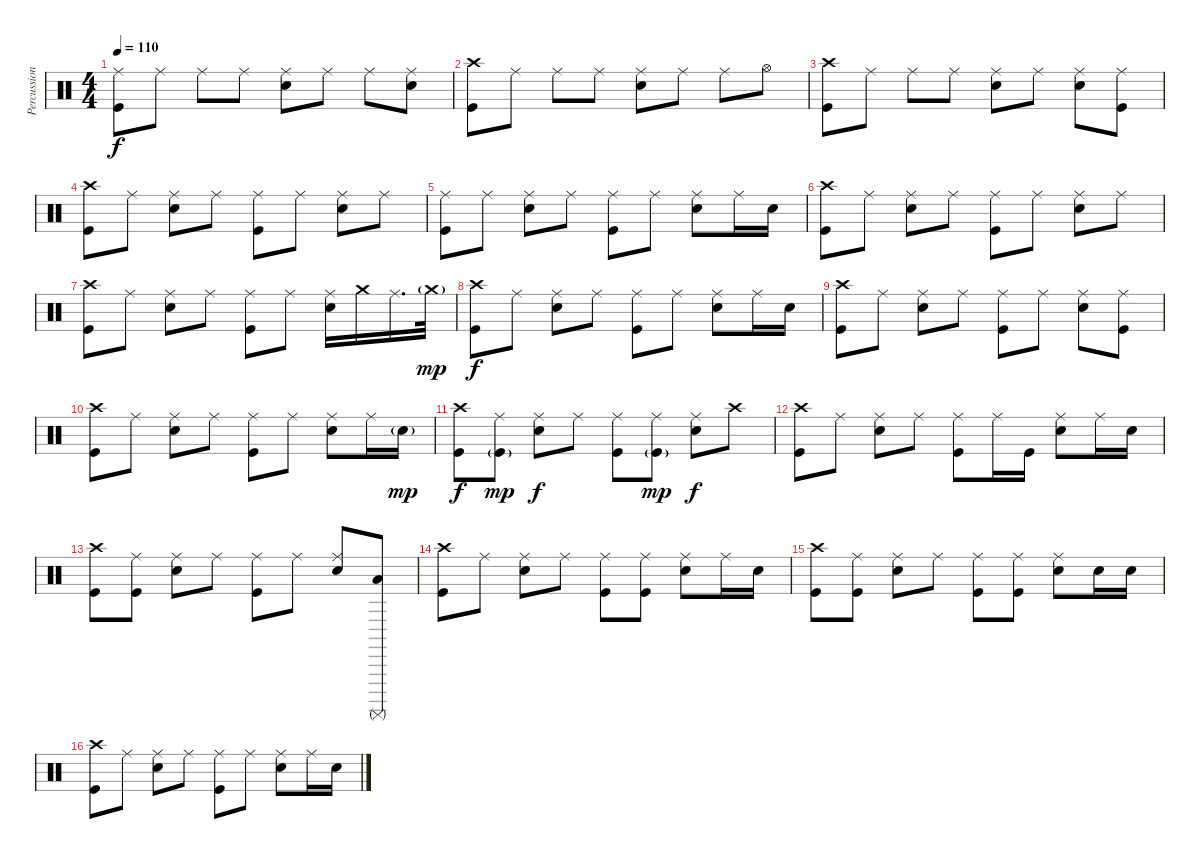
\track ("Percussions" "Percussion") {instrument percussion}
\staff {score}
\articulation defaults
\ts (4 4)
\tempo 110
\clef neutral
\ks c
("Ride (middle)" "Kick (hit)").8{dy f} "Ride (middle)".8 "Ride (middle)".8 "Ride (middle)".8 ("Ride (middle)" "Snare (hit) 2").8 "Ride (middle)".8 "Ride (middle)".8 ("Ride (middle)" "Snare (hit) 2").8 |
("Crash high (hit)" "Kick (hit)").8 "Ride (middle)".8 "Ride (middle)".8 "Ride (middle)".8 ("Ride (middle)" "Snare (hit) 2").8 "Ride (middle)".8 "Ride (middle)".8 "Hi-Hat (open)".8 |
("Crash high (hit)" "Kick (hit)").8 "Ride (middle)".8 "Ride (middle)".8 "Ride (middle)".8 ("Ride (middle)" "Snare (hit) 2").8 "Ride (middle)".8 ("Ride (middle)" "Snare (hit) 2").8 ("Ride (middle)" "Kick (hit)").8 |
("Crash high (hit)" "Kick (hit)").8 "Ride (middle)".8 ("Ride (middle)" "Snare (hit) 2").8 "Ride (middle)".8 ("Ride (middle)" "Kick (hit)").8 "Ride (middle)".8 ("Ride (middle)" "Snare (hit) 2").8 "Ride (middle)".8 |
("Ride (middle)" "Kick (hit)").8 "Ride (middle)".8 ("Ride (middle)" "Snare (hit) 2").8 "Ride (middle)".8 ("Ride (middle)" "Kick (hit)").8 "Ride (middle)".8 ("Ride (middle)" "Snare (hit) 2").8 "Ride (middle)".16 "Snare (hit) 2".16 |
("Crash high (hit)" "Kick (hit)").8 "Ride (middle)".8 ("Ride (middle)" "Snare (hit) 2").8 "Ride (middle)".8 ("Ride (middle)" "Kick (hit)").8 "Ride (middle)".8 ("Ride (middle)" "Snare (hit) 2").8 "Ride (middle)".8 |
("Crash high (hit)" "Kick (hit)").8 "Ride (middle)".8 ("Ride (middle)" "Snare (hit) 2").8 "Ride (middle)".8 ("Ride (middle)" "Kick (hit)").8 "Ride (middle)".8 ("Ride (middle)" "Snare (hit) 2").16 "Crash medium (hit)".16 "Ride (middle)".16{d} "Crash medium (hit)"{g}.32{dy mp} |
("Crash high (hit)" "Kick (hit)").8{dy f} "Ride (middle)".8 ("Ride (middle)" "Snare (hit) 2").8 "Ride (middle)".8 ("Ride (middle)" "Kick (hit)").8 "Ride (middle)".8 ("Ride (middle)" "Snare (hit) 2").8 "Ride (middle)".16 "Snare (hit) 2".16 |
("Crash high (hit)" "Kick (hit)").8 "Ride (middle)".8 ("Ride (middle)" "Snare (hit) 2").8 "Ride (middle)".8 ("Ride (middle)" "Kick (hit)").8 "Ride (middle)".8 ("Ride (middle)" "Snare (hit) 2").8 ("Ride (middle)" "Kick (hit)").8 |
("Crash high (hit)" "Kick (hit)").8 "Ride (middle)".8 ("Ride (middle)" "Snare (hit) 2").8 "Ride (middle)".8 ("Ride (middle)" "Kick (hit)").8 "Ride (middle)".8 ("Ride (middle)" "Snare (hit) 2").8 "Ride (middle)".16 "Snare (hit) 2"{g}.16{dy mp} |
("Crash high (hit)" "Kick (hit)").8{dy f} ("Ride (middle)" "Kick (hit)"{g}).8{dy mp} ("Ride (middle)" "Snare (hit) 2").8{dy f} "Ride (middle)".8 ("Ride (middle)" "Kick (hit)").8 ("Ride (middle)" "Kick (hit)"{g}).8{dy mp} ("Ride (middle)" "Snare (hit) 2").8{dy f} "Crash high (hit)".8 |
("Crash high (hit)" "Kick (hit)").8 "Ride (middle)".8 ("Ride (middle)" "Snare (hit) 2").8 "Ride (middle)".8 ("Ride (middle)" "Kick (hit)").8 "Ride (middle)".16 "Kick (hit)".16 ("Ride (middle)" "Snare (hit) 2").8 "Ride (middle)".16 "Snare (hit) 2".16 |
("Crash high (hit)" "Kick (hit)").8 ("Ride (middle)" "Kick (hit)").8 ("Ride (middle)" "Snare (hit) 2").8 "Ride (middle)".8 ("Ride (middle)" "Kick (hit)").8 "Ride (middle)".8 ("Ride (middle)" "Snare (hit) 2").8 ("Surdo (mute)" "Low Floor Tom (hit)").8 |
("Crash high (hit)" "Kick (hit)").8 "Ride (middle)".8 ("Ride (middle)" "Snare (hit) 2").8 "Ride (middle)".8 ("Ride (middle)" "Kick (hit)").8 ("Ride (middle)" "Kick (hit)").8 ("Ride (middle)" "Snare (hit) 2").8 "Ride (middle)".16 "Snare (hit) 2".16 |
("Crash high (hit)" "Kick (hit)").8 ("Ride (middle)" "Kick (hit)").8 ("Ride (middle)" "Snare (hit) 2").8 "Ride (middle)".8 ("Ride (middle)" "Kick (hit)").8 ("Ride (middle)" "Kick (hit)").8 ("Ride (middle)" "Snare (hit) 2").8 "Snare (hit) 2".16 "Snare (hit) 2".16 |
("Crash high (hit)" "Kick (hit)").8 "Ride (middle)".8 ("Ride (middle)" "Snare (hit) 2").8 "Ride (middle)".8 ("Ride (middle)" "Kick (hit)").8 "Ride (middle)".8 ("Ride (middle)" "Snare (hit) 2").8 "Ride (middle)".16 "Snare (hit) 2".16
